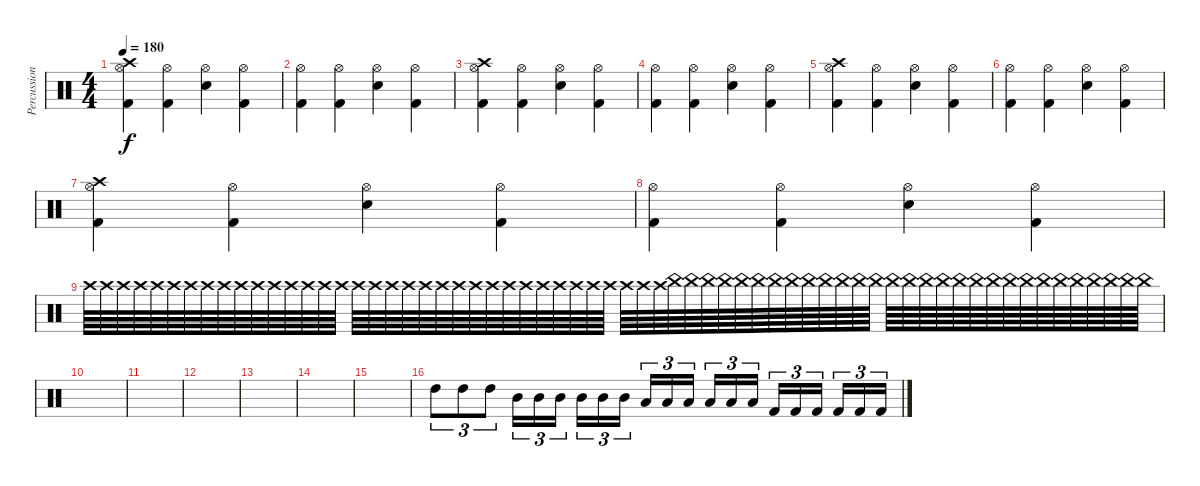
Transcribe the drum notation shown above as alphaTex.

\track ("Percussion" "Percussion") {instrument percussion}
\staff {score}
\articulation defaults
\ts (4 4)
\tempo 180
\clef neutral
\ks c
("Crash high (hit)" "Hi-Hat (open)" "Kick (hit) 2").4{dy f} ("Hi-Hat (open)" "Kick (hit) 2").4 ("Hi-Hat (open)" "Snare (hit) 2").4 ("Hi-Hat (open)" "Kick (hit) 2").4 |
("Hi-Hat (open)" "Kick (hit) 2").4 ("Hi-Hat (open)" "Kick (hit) 2").4 ("Hi-Hat (open)" "Snare (hit) 2").4 ("Hi-Hat (open)" "Kick (hit) 2").4 |
("Crash high (hit)" "Hi-Hat (open)" "Kick (hit) 2").4 ("Hi-Hat (open)" "Kick (hit) 2").4 ("Hi-Hat (open)" "Snare (hit) 2").4 ("Hi-Hat (open)" "Kick (hit) 2").4 |
("Hi-Hat (open)" "Kick (hit) 2").4 ("Hi-Hat (open)" "Kick (hit) 2").4 ("Hi-Hat (open)" "Snare (hit) 2").4 ("Hi-Hat (open)" "Kick (hit) 2").4 |
("Crash high (hit)" "Hi-Hat (open)" "Kick (hit) 2").4 ("Hi-Hat (open)" "Kick (hit) 2").4 ("Hi-Hat (open)" "Snare (hit) 2").4 ("Hi-Hat (open)" "Kick (hit) 2").4 |
("Hi-Hat (open)" "Kick (hit) 2").4 ("Hi-Hat (open)" "Kick (hit) 2").4 ("Hi-Hat (open)" "Snare (hit) 2").4 ("Hi-Hat (open)" "Kick (hit) 2").4 |
("Crash high (hit)" "Hi-Hat (open)" "Kick (hit) 2").4 ("Hi-Hat (open)" "Kick (hit) 2").4 ("Hi-Hat (open)" "Snare (hit) 2").4 ("Hi-Hat (open)" "Kick (hit) 2").4 |
("Hi-Hat (open)" "Kick (hit) 2").4 ("Hi-Hat (open)" "Kick (hit) 2").4 ("Hi-Hat (open)" "Snare (hit) 2").4 ("Hi-Hat (open)" "Kick (hit) 2").4 |
"Crash high (hit)".64 "Crash high (hit)".64 "Crash high (hit)".64 "Crash high (hit)".64 "Crash high (hit)".64 "Crash high (hit)".64 "Crash high (hit)".64 "Crash high (hit)".64 "Crash high (hit)".64 "Crash high (hit)".64 "Crash high (hit)".64 "Crash high (hit)".64 "Crash high (hit)".64 "Crash high (hit)".64 "Crash high (hit)".64 "Crash high (hit)".64 "Crash high (hit)".64 "Crash high (hit)".64 "Crash high (hit)".64 "Crash high (hit)".64 "Crash high (hit)".64 "Crash high (hit)".64 "Crash high (hit)".64 "Crash high (hit)".64 "Crash high (hit)".64 "Crash high (hit)".64 "Crash high (hit)".64 "Crash high (hit)".64 "Crash high (hit)".64 "Crash high (hit)".64 "Crash high (hit)".64 "Crash high (hit)".64 "Crash high (hit)".64 "Crash high (hit)".64 "Crash high (hit)".64 "China (hit)".64 "China (hit)".64 "China (hit)".64 "China (hit)".64 "China (hit)".64 "China (hit)".64 "China (hit)".64 "China (hit)".64 "China (hit)".64 "China (hit)".64 "China (hit)".64 "China (hit)".64 "China (hit)".64 "China (hit)".64 "China (hit)".64 "China (hit)".64 "China (hit)".64 "China (hit)".64 "China (hit)".64 "China (hit)".64 "China (hit)".64 "China (hit)".64 "China (hit)".64 "China (hit)".64 "China (hit)".64 "China (hit)".64 "China (hit)".64 "China (hit)".64 "China (hit)".64 |
|
|
|
|
|
|
"High Tom (hit)".8{tu (3 2)} "High Tom (hit)".8{tu (3 2)} "High Tom (hit)".8{tu (3 2)} "Mid Tom (hit)".16{tu (3 2)} "Mid Tom (hit)".16{tu (3 2)} "Mid Tom (hit)".16{tu (3 2)} "Mid Tom (hit)".16{tu (3 2)} "Mid Tom (hit)".16{tu (3 2)} "Mid Tom (hit)".16{tu (3 2)} "Low Tom (hit)".16{tu (3 2)} "Low Tom (hit)".16{tu (3 2)} "Low Tom (hit)".16{tu (3 2)} "Low Tom (hit)".16{tu (3 2)} "Low Tom (hit)".16{tu (3 2)} "Low Tom (hit)".16{tu (3 2)} "Kick (hit) 2".16{tu (3 2)} "Kick (hit) 2".16{tu (3 2)} "Kick (hit) 2".16{tu (3 2)} "Kick (hit) 2".16{tu (3 2)} "Kick (hit) 2".16{tu (3 2)} "Kick (hit) 2".16{tu (3 2)}
